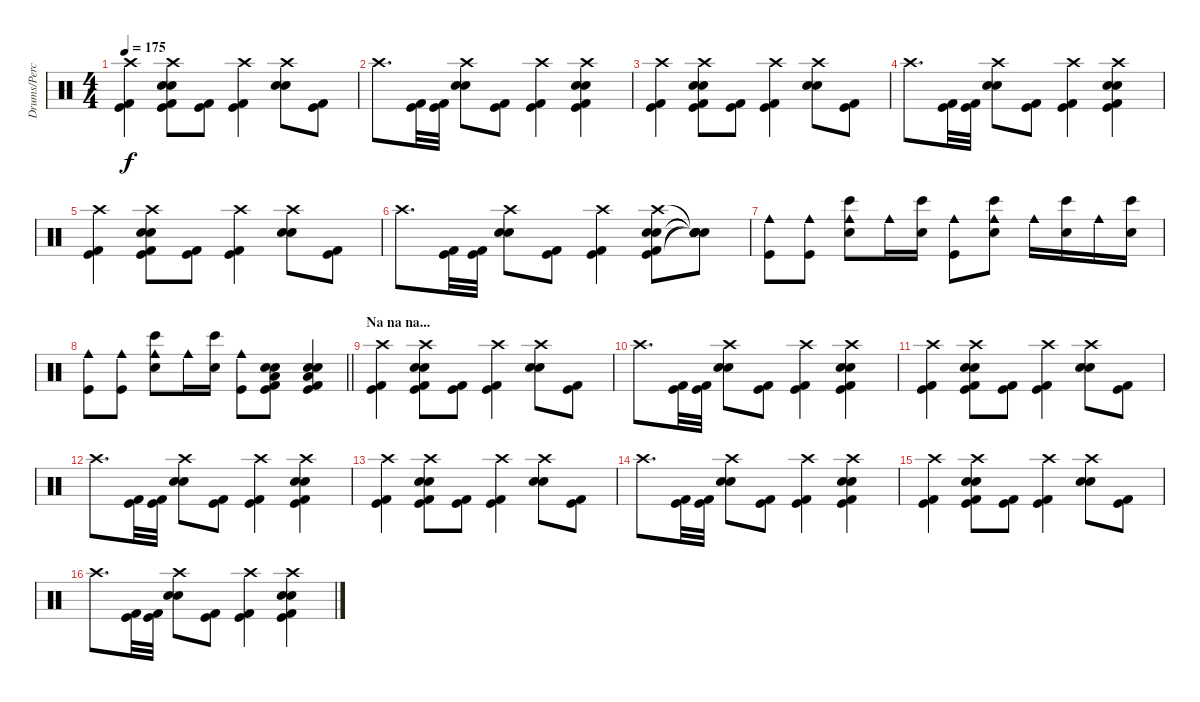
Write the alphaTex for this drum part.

\track ("Drums/Percussion" "Drums/Perc") {instrument percussion}
\staff {score}
\articulation defaults
\ts (4 4)
\tempo 175
\clef neutral
\ks c
("Crash high (hit)" "Kick (hit)" "Kick (hit) 2").4{dy f} ("Crash high (hit)" "Electric Snare (hit)" "Snare (hit) 2" "Kick (hit)" "Kick (hit) 2").8 ("Kick (hit)" "Kick (hit) 2").8 ("Crash high (hit)" "Kick (hit)" "Kick (hit) 2").4 ("Crash high (hit)" "Electric Snare (hit)" "Snare (hit) 2").8 ("Kick (hit)" "Kick (hit) 2").8 |
"Crash high (hit)".8{d} ("Kick (hit)" "Kick (hit) 2").32 ("Kick (hit)" "Kick (hit) 2").32 ("Crash high (hit)" "Electric Snare (hit)" "Snare (hit) 2").8 ("Kick (hit)" "Kick (hit) 2").8 ("Crash high (hit)" "Kick (hit)" "Kick (hit) 2").4 ("Crash high (hit)" "Electric Snare (hit)" "Snare (hit) 2" "Kick (hit)" "Kick (hit) 2").4 |
("Crash high (hit)" "Kick (hit)" "Kick (hit) 2").4 ("Crash high (hit)" "Electric Snare (hit)" "Snare (hit) 2" "Kick (hit)" "Kick (hit) 2").8 ("Kick (hit)" "Kick (hit) 2").8 ("Crash high (hit)" "Kick (hit)" "Kick (hit) 2").4 ("Crash high (hit)" "Electric Snare (hit)" "Snare (hit) 2").8 ("Kick (hit)" "Kick (hit) 2").8 |
"Crash high (hit)".8{d} ("Kick (hit)" "Kick (hit) 2").32 ("Kick (hit)" "Kick (hit) 2").32 ("Crash high (hit)" "Electric Snare (hit)" "Snare (hit) 2").8 ("Kick (hit)" "Kick (hit) 2").8 ("Crash high (hit)" "Kick (hit)" "Kick (hit) 2").4 ("Crash high (hit)" "Electric Snare (hit)" "Snare (hit) 2" "Kick (hit)" "Kick (hit) 2").4 |
("Crash high (hit)" "Kick (hit)" "Kick (hit) 2").4 ("Crash high (hit)" "Electric Snare (hit)" "Snare (hit) 2" "Kick (hit)" "Kick (hit) 2").8 ("Kick (hit)" "Kick (hit) 2").8 ("Crash high (hit)" "Kick (hit)" "Kick (hit) 2").4 ("Crash high (hit)" "Electric Snare (hit)" "Snare (hit) 2").8 ("Kick (hit)" "Kick (hit) 2").8 |
"Crash high (hit)".8{d} ("Kick (hit)" "Kick (hit) 2").32 ("Kick (hit)" "Kick (hit) 2").32 ("Crash high (hit)" "Electric Snare (hit)" "Snare (hit) 2").8 ("Kick (hit)" "Kick (hit) 2").8 ("Crash high (hit)" "Kick (hit)" "Kick (hit) 2").4 ("Crash high (hit)" "Electric Snare (hit)" "Snare (hit) 2" "Kick (hit)" "Kick (hit) 2").8 ("Snare (hit)"{t} "Snare (hit)"{t} "Snare (hit)"{t} "Snare (hit)"{t} "Snare (hit)"{t}).8{volume 8} |
("Cowbell medium (hit)" "Kick (hit)").8{volume 16} ("Cowbell medium (hit)" "Kick (hit)").8 ("Cowbell medium (hit)" "Bongo High (hit)" "Electric Snare (hit)").8 "Cowbell medium (hit)".16 ("Bongo High (hit)" "Electric Snare (hit)").16 ("Cowbell medium (hit)" "Kick (hit)").8 ("Cowbell medium (hit)" "Bongo High (hit)" "Electric Snare (hit)").8 "Cowbell medium (hit)".16 ("Bongo High (hit)" "Electric Snare (hit)").16 "Cowbell medium (hit)".16 ("Bongo High (hit)" "Electric Snare (hit)").16 |
\barLineRight lightlight
("Cowbell medium (hit)" "Kick (hit)").8 ("Cowbell medium (hit)" "Kick (hit)").8 ("Cowbell medium (hit)" "Bongo High (hit)" "Electric Snare (hit)").8 "Cowbell medium (hit)".16 ("Bongo High (hit)" "Electric Snare (hit)").16 ("Cowbell medium (hit)" "Kick (hit)").8 ("Low Tom (hit)" "Electric Snare (hit)" "Snare (hit) 2" "Kick (hit)" "Kick (hit) 2").8 ("Low Tom (hit)" "Electric Snare (hit)" "Snare (hit) 2" "Kick (hit)" "Kick (hit) 2").4 |
\section ("" "Na na na...")
("Crash high (hit)" "Kick (hit)" "Kick (hit) 2").4 ("Crash high (hit)" "Electric Snare (hit)" "Snare (hit) 2" "Kick (hit)" "Kick (hit) 2").8 ("Kick (hit)" "Kick (hit) 2").8 ("Crash high (hit)" "Kick (hit)" "Kick (hit) 2").4 ("Crash high (hit)" "Electric Snare (hit)" "Snare (hit) 2").8 ("Kick (hit)" "Kick (hit) 2").8 |
"Crash high (hit)".8{d} ("Kick (hit)" "Kick (hit) 2").32 ("Kick (hit)" "Kick (hit) 2").32 ("Crash high (hit)" "Electric Snare (hit)" "Snare (hit) 2").8 ("Kick (hit)" "Kick (hit) 2").8 ("Crash high (hit)" "Kick (hit)" "Kick (hit) 2").4 ("Crash high (hit)" "Electric Snare (hit)" "Snare (hit) 2" "Kick (hit)" "Kick (hit) 2").4 |
("Crash high (hit)" "Kick (hit)" "Kick (hit) 2").4 ("Crash high (hit)" "Electric Snare (hit)" "Snare (hit) 2" "Kick (hit)" "Kick (hit) 2").8 ("Kick (hit)" "Kick (hit) 2").8 ("Crash high (hit)" "Kick (hit)" "Kick (hit) 2").4 ("Crash high (hit)" "Electric Snare (hit)" "Snare (hit) 2").8 ("Kick (hit)" "Kick (hit) 2").8 |
"Crash high (hit)".8{d} ("Kick (hit)" "Kick (hit) 2").32 ("Kick (hit)" "Kick (hit) 2").32 ("Crash high (hit)" "Electric Snare (hit)" "Snare (hit) 2").8 ("Kick (hit)" "Kick (hit) 2").8 ("Crash high (hit)" "Kick (hit)" "Kick (hit) 2").4 ("Crash high (hit)" "Electric Snare (hit)" "Snare (hit) 2" "Kick (hit)" "Kick (hit) 2").4 |
("Crash high (hit)" "Kick (hit)" "Kick (hit) 2").4 ("Crash high (hit)" "Electric Snare (hit)" "Snare (hit) 2" "Kick (hit)" "Kick (hit) 2").8 ("Kick (hit)" "Kick (hit) 2").8 ("Crash high (hit)" "Kick (hit)" "Kick (hit) 2").4 ("Crash high (hit)" "Electric Snare (hit)" "Snare (hit) 2").8 ("Kick (hit)" "Kick (hit) 2").8 |
"Crash high (hit)".8{d} ("Kick (hit)" "Kick (hit) 2").32 ("Kick (hit)" "Kick (hit) 2").32 ("Crash high (hit)" "Electric Snare (hit)" "Snare (hit) 2").8 ("Kick (hit)" "Kick (hit) 2").8 ("Crash high (hit)" "Kick (hit)" "Kick (hit) 2").4 ("Crash high (hit)" "Electric Snare (hit)" "Snare (hit) 2" "Kick (hit)" "Kick (hit) 2").4 |
("Crash high (hit)" "Kick (hit)" "Kick (hit) 2").4 ("Crash high (hit)" "Electric Snare (hit)" "Snare (hit) 2" "Kick (hit)" "Kick (hit) 2").8 ("Kick (hit)" "Kick (hit) 2").8 ("Crash high (hit)" "Kick (hit)" "Kick (hit) 2").4 ("Crash high (hit)" "Electric Snare (hit)" "Snare (hit) 2").8 ("Kick (hit)" "Kick (hit) 2").8 |
"Crash high (hit)".8{d} ("Kick (hit)" "Kick (hit) 2").32 ("Kick (hit)" "Kick (hit) 2").32 ("Crash high (hit)" "Electric Snare (hit)" "Snare (hit) 2").8 ("Kick (hit)" "Kick (hit) 2").8 ("Crash high (hit)" "Kick (hit)" "Kick (hit) 2").4 ("Crash high (hit)" "Electric Snare (hit)" "Snare (hit) 2" "Kick (hit)" "Kick (hit) 2").4
